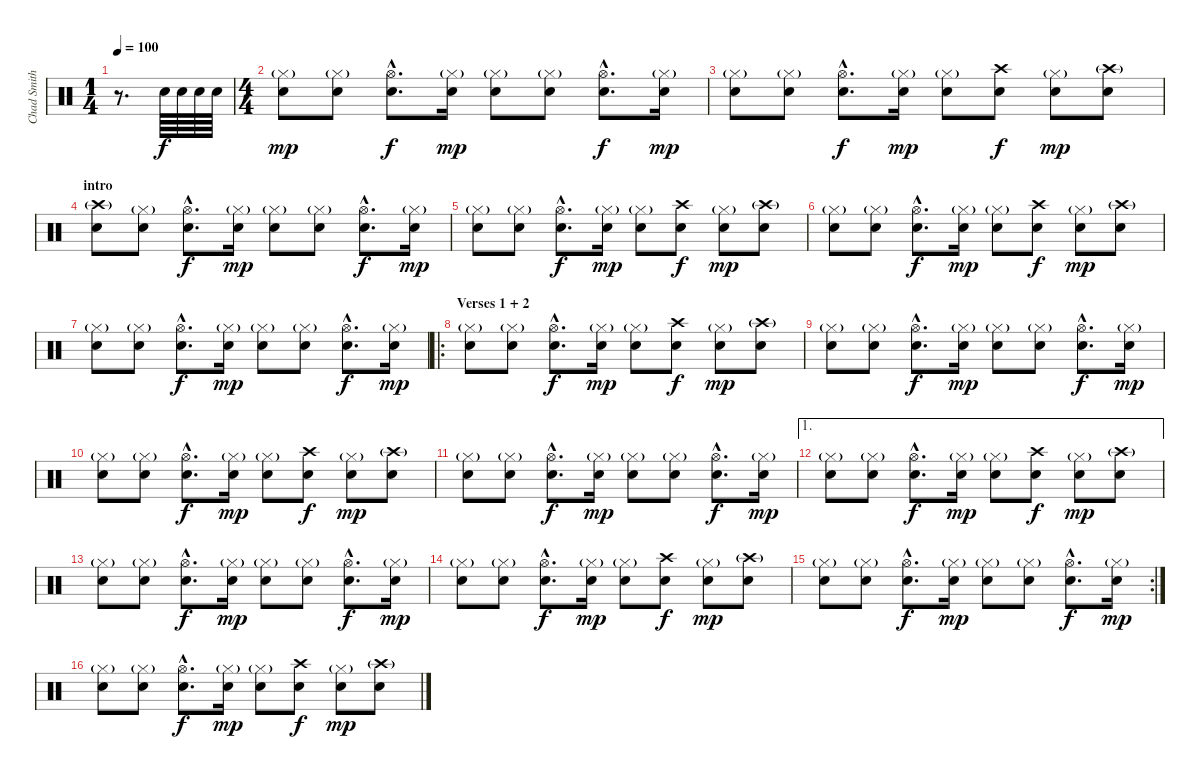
\track ("Chad Smith - Drums" "Chad Smith") {instrument percussion}
\staff {score}
\articulation defaults
\ts (1 4)
\tempo 100
\clef neutral
\ks c
r.8{d dy f} "Snare (hit) 2".64 "Snare (hit) 2".64 "Snare (hit) 2".64 "Snare (hit) 2".64 |
\ts (4 4)
("Hi-Hat (closed)"{g} "Snare (hit) 2").8{dy mp} ("Hi-Hat (closed)"{g} "Snare (hit) 2").8 ("Hi-Hat (open)"{hac} "Snare (hit) 2"{hac}).8{d dy f} ("Hi-Hat (closed)"{g} "Snare (hit) 2").16{dy mp} ("Hi-Hat (closed)"{g} "Snare (hit) 2").8 ("Hi-Hat (closed)"{g} "Snare (hit) 2").8 ("Hi-Hat (open)"{hac} "Snare (hit) 2"{hac}).8{d dy f} ("Hi-Hat (closed)"{g} "Snare (hit) 2").16{dy mp} |
("Hi-Hat (closed)"{g} "Snare (hit) 2").8 ("Hi-Hat (closed)"{g} "Snare (hit) 2").8 ("Hi-Hat (open)"{hac} "Snare (hit) 2"{hac}).8{d dy f} ("Hi-Hat (closed)"{g} "Snare (hit) 2").16{dy mp} ("Hi-Hat (closed)"{g} "Snare (hit) 2").8 ("Crash high (hit)" "Snare (hit) 2").8{dy f} ("Hi-Hat (closed)"{g} "Snare (hit) 2").8{dy mp} ("Crash high (hit)"{g} "Snare (hit) 2").8 |
\section ("" "intro")
("Crash high (hit)"{g} "Snare (hit) 2").8 ("Hi-Hat (closed)"{g} "Snare (hit) 2").8 ("Hi-Hat (open)"{hac} "Snare (hit) 2"{hac}).8{d dy f} ("Hi-Hat (closed)"{g} "Snare (hit) 2").16{dy mp} ("Hi-Hat (closed)"{g} "Snare (hit) 2").8 ("Hi-Hat (closed)"{g} "Snare (hit) 2").8 ("Hi-Hat (open)"{hac} "Snare (hit) 2"{hac}).8{d dy f} ("Hi-Hat (closed)"{g} "Snare (hit) 2").16{dy mp} |
("Hi-Hat (closed)"{g} "Snare (hit) 2").8 ("Hi-Hat (closed)"{g} "Snare (hit) 2").8 ("Hi-Hat (open)"{hac} "Snare (hit) 2"{hac}).8{d dy f} ("Hi-Hat (closed)"{g} "Snare (hit) 2").16{dy mp} ("Hi-Hat (closed)"{g} "Snare (hit) 2").8 ("Crash high (hit)" "Snare (hit) 2").8{dy f} ("Hi-Hat (closed)"{g} "Snare (hit) 2").8{dy mp} ("Crash high (hit)"{g} "Snare (hit) 2").8 |
("Hi-Hat (closed)"{g} "Snare (hit) 2").8 ("Hi-Hat (closed)"{g} "Snare (hit) 2").8 ("Hi-Hat (open)"{hac} "Snare (hit) 2"{hac}).8{d dy f} ("Hi-Hat (closed)"{g} "Snare (hit) 2").16{dy mp} ("Hi-Hat (closed)"{g} "Snare (hit) 2").8 ("Crash high (hit)" "Snare (hit) 2").8{dy f} ("Hi-Hat (closed)"{g} "Snare (hit) 2").8{dy mp} ("Crash high (hit)"{g} "Snare (hit) 2").8 |
("Hi-Hat (closed)"{g} "Snare (hit) 2").8 ("Hi-Hat (closed)"{g} "Snare (hit) 2").8 ("Hi-Hat (open)"{hac} "Snare (hit) 2"{hac}).8{d dy f} ("Hi-Hat (closed)"{g} "Snare (hit) 2").16{dy mp} ("Hi-Hat (closed)"{g} "Snare (hit) 2").8 ("Hi-Hat (closed)"{g} "Snare (hit) 2").8 ("Hi-Hat (open)"{hac} "Snare (hit) 2"{hac}).8{d dy f} ("Hi-Hat (closed)"{g} "Snare (hit) 2").16{dy mp} |
\ro
\section ("" "Verses 1 + 2")
("Hi-Hat (closed)"{g} "Snare (hit) 2").8 ("Hi-Hat (closed)"{g} "Snare (hit) 2").8 ("Hi-Hat (open)"{hac} "Snare (hit) 2"{hac}).8{d dy f} ("Hi-Hat (closed)"{g} "Snare (hit) 2").16{dy mp} ("Hi-Hat (closed)"{g} "Snare (hit) 2").8 ("Crash high (hit)" "Snare (hit) 2").8{dy f} ("Hi-Hat (closed)"{g} "Snare (hit) 2").8{dy mp} ("Crash high (hit)"{g} "Snare (hit) 2").8 |
("Hi-Hat (closed)"{g} "Snare (hit) 2").8 ("Hi-Hat (closed)"{g} "Snare (hit) 2").8 ("Hi-Hat (open)"{hac} "Snare (hit) 2"{hac}).8{d dy f} ("Hi-Hat (closed)"{g} "Snare (hit) 2").16{dy mp} ("Hi-Hat (closed)"{g} "Snare (hit) 2").8 ("Hi-Hat (closed)"{g} "Snare (hit) 2").8 ("Hi-Hat (open)"{hac} "Snare (hit) 2"{hac}).8{d dy f} ("Hi-Hat (closed)"{g} "Snare (hit) 2").16{dy mp} |
("Hi-Hat (closed)"{g} "Snare (hit) 2").8 ("Hi-Hat (closed)"{g} "Snare (hit) 2").8 ("Hi-Hat (open)"{hac} "Snare (hit) 2"{hac}).8{d dy f} ("Hi-Hat (closed)"{g} "Snare (hit) 2").16{dy mp} ("Hi-Hat (closed)"{g} "Snare (hit) 2").8 ("Crash high (hit)" "Snare (hit) 2").8{dy f} ("Hi-Hat (closed)"{g} "Snare (hit) 2").8{dy mp} ("Crash high (hit)"{g} "Snare (hit) 2").8 |
("Hi-Hat (closed)"{g} "Snare (hit) 2").8 ("Hi-Hat (closed)"{g} "Snare (hit) 2").8 ("Hi-Hat (open)"{hac} "Snare (hit) 2"{hac}).8{d dy f} ("Hi-Hat (closed)"{g} "Snare (hit) 2").16{dy mp} ("Hi-Hat (closed)"{g} "Snare (hit) 2").8 ("Hi-Hat (closed)"{g} "Snare (hit) 2").8 ("Hi-Hat (open)"{hac} "Snare (hit) 2"{hac}).8{d dy f} ("Hi-Hat (closed)"{g} "Snare (hit) 2").16{dy mp} |
\ae 1
("Hi-Hat (closed)"{g} "Snare (hit) 2").8 ("Hi-Hat (closed)"{g} "Snare (hit) 2").8 ("Hi-Hat (open)"{hac} "Snare (hit) 2"{hac}).8{d dy f} ("Hi-Hat (closed)"{g} "Snare (hit) 2").16{dy mp} ("Hi-Hat (closed)"{g} "Snare (hit) 2").8 ("Crash high (hit)" "Snare (hit) 2").8{dy f} ("Hi-Hat (closed)"{g} "Snare (hit) 2").8{dy mp} ("Crash high (hit)"{g} "Snare (hit) 2").8 |
("Hi-Hat (closed)"{g} "Snare (hit) 2").8 ("Hi-Hat (closed)"{g} "Snare (hit) 2").8 ("Hi-Hat (open)"{hac} "Snare (hit) 2"{hac}).8{d dy f} ("Hi-Hat (closed)"{g} "Snare (hit) 2").16{dy mp} ("Hi-Hat (closed)"{g} "Snare (hit) 2").8 ("Hi-Hat (closed)"{g} "Snare (hit) 2").8 ("Hi-Hat (open)"{hac} "Snare (hit) 2"{hac}).8{d dy f} ("Hi-Hat (closed)"{g} "Snare (hit) 2").16{dy mp} |
("Hi-Hat (closed)"{g} "Snare (hit) 2").8 ("Hi-Hat (closed)"{g} "Snare (hit) 2").8 ("Hi-Hat (open)"{hac} "Snare (hit) 2"{hac}).8{d dy f} ("Hi-Hat (closed)"{g} "Snare (hit) 2").16{dy mp} ("Hi-Hat (closed)"{g} "Snare (hit) 2").8 ("Crash high (hit)" "Snare (hit) 2").8{dy f} ("Hi-Hat (closed)"{g} "Snare (hit) 2").8{dy mp} ("Crash high (hit)"{g} "Snare (hit) 2").8 |
\rc 2
("Hi-Hat (closed)"{g} "Snare (hit) 2").8 ("Hi-Hat (closed)"{g} "Snare (hit) 2").8 ("Hi-Hat (open)"{hac} "Snare (hit) 2"{hac}).8{d dy f} ("Hi-Hat (closed)"{g} "Snare (hit) 2").16{dy mp} ("Hi-Hat (closed)"{g} "Snare (hit) 2").8 ("Hi-Hat (closed)"{g} "Snare (hit) 2").8 ("Hi-Hat (open)"{hac} "Snare (hit) 2"{hac}).8{d dy f} ("Hi-Hat (closed)"{g} "Snare (hit) 2").16{dy mp} |
("Hi-Hat (closed)"{g} "Snare (hit) 2").8 ("Hi-Hat (closed)"{g} "Snare (hit) 2").8 ("Hi-Hat (open)"{hac} "Snare (hit) 2"{hac}).8{d dy f} ("Hi-Hat (closed)"{g} "Snare (hit) 2").16{dy mp} ("Hi-Hat (closed)"{g} "Snare (hit) 2").8 ("Crash high (hit)" "Snare (hit) 2").8{dy f} ("Hi-Hat (closed)"{g} "Snare (hit) 2").8{dy mp} ("Crash high (hit)"{g} "Snare (hit) 2").8
